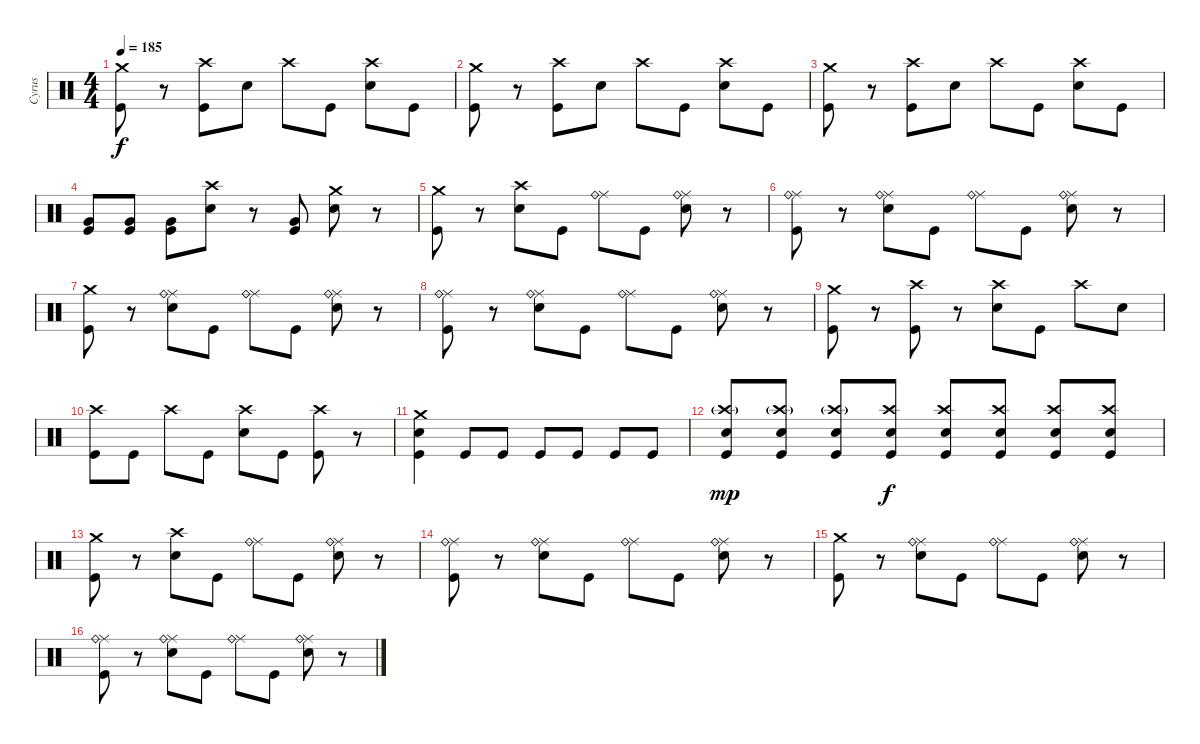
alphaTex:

\track ("Cyrus" "Cyrus") {instrument percussion}
\staff {score}
\articulation defaults
\ts (4 4)
\tempo 185
\clef neutral
\ks c
("Crash medium (hit)" "Kick (hit)").8{dy f} r.8 ("Crash high (hit)" "Kick (hit)").8 "Electric Snare (hit)".8 "Crash high (hit)".8 "Kick (hit)".8 ("Crash high (hit)" "Electric Snare (hit)").8 "Kick (hit)".8 |
("Crash medium (hit)" "Kick (hit)").8 r.8 ("Crash high (hit)" "Kick (hit)").8 "Electric Snare (hit)".8 "Crash high (hit)".8 "Kick (hit)".8 ("Crash high (hit)" "Electric Snare (hit)").8 "Kick (hit)".8 |
("Crash medium (hit)" "Kick (hit)").8 r.8 ("Crash high (hit)" "Kick (hit)").8 "Electric Snare (hit)".8 "Crash high (hit)".8 "Kick (hit)".8 ("Crash high (hit)" "Electric Snare (hit)").8 "Kick (hit)".8 |
("Very Low Tom (hit)" "Kick (hit)").8 ("Very Low Tom (hit)" "Kick (hit)").8 ("Very Low Tom (hit)" "Kick (hit)").8 ("Crash high (hit)" "Electric Snare (hit)").8 r.8 ("Very Low Tom (hit)" "Kick (hit)").8 ("Crash medium (hit)" "Electric Snare (hit)").8 r.8 |
("Crash medium (hit)" "Kick (hit)").8 r.8 ("Crash high (hit)" "Electric Snare (hit)").8 "Kick (hit)".8 ("Ride (middle)" "Ride (bell)").8 "Kick (hit)".8 ("Ride (middle)" "Ride (bell)" "Electric Snare (hit)").8 r.8 |
("Ride (middle)" "Ride (bell)" "Kick (hit)").8 r.8 ("Ride (middle)" "Ride (bell)" "Electric Snare (hit)").8 "Kick (hit)".8 ("Ride (middle)" "Ride (bell)").8 "Kick (hit)".8 ("Ride (middle)" "Ride (bell)" "Electric Snare (hit)").8 r.8 |
("Crash medium (hit)" "Kick (hit)").8 r.8 ("Ride (middle)" "Ride (bell)" "Electric Snare (hit)").8 "Kick (hit)".8 ("Ride (middle)" "Ride (bell)").8 "Kick (hit)".8 ("Ride (middle)" "Ride (bell)" "Electric Snare (hit)").8 r.8 |
("Ride (middle)" "Ride (bell)" "Kick (hit)").8 r.8 ("Ride (middle)" "Ride (bell)" "Electric Snare (hit)").8 "Kick (hit)".8 ("Ride (middle)" "Ride (bell)").8 "Kick (hit)".8 ("Ride (middle)" "Ride (bell)" "Electric Snare (hit)").8 r.8 |
("Crash medium (hit)" "Kick (hit)").8 r.8 ("Crash high (hit)" "Kick (hit)").8 r.8 ("Crash high (hit)" "Electric Snare (hit)").8 "Kick (hit)".8 "Crash high (hit)".8 "Electric Snare (hit)".8 |
("Crash high (hit)" "Kick (hit)").8 "Kick (hit)".8 "Crash high (hit)".8 "Kick (hit)".8 ("Crash high (hit)" "Electric Snare (hit)").8 "Kick (hit)".8 ("Crash high (hit)" "Kick (hit)").8 r.8 |
("Crash medium (hit)" "Electric Snare (hit)" "Kick (hit)").4 "Kick (hit)".8 "Kick (hit)".8 "Kick (hit)".8 "Kick (hit)".8 "Kick (hit)".8 "Kick (hit)".8 |
("Crash high (hit)"{g} "Electric Snare (hit)" "Kick (hit)").8{dy mp} ("Crash high (hit)"{g} "Electric Snare (hit)" "Kick (hit)").8 ("Crash high (hit)"{g} "Electric Snare (hit)" "Kick (hit)").8 ("Crash high (hit)" "Electric Snare (hit)" "Kick (hit)").8{dy f} ("Crash high (hit)" "Electric Snare (hit)" "Kick (hit)").8 ("Crash high (hit)" "Electric Snare (hit)" "Kick (hit)").8 ("Crash high (hit)" "Electric Snare (hit)" "Kick (hit)").8 ("Crash high (hit)" "Electric Snare (hit)" "Kick (hit)").8 |
("Crash medium (hit)" "Kick (hit)").8 r.8 ("Crash high (hit)" "Electric Snare (hit)").8 "Kick (hit)".8 ("Ride (middle)" "Ride (bell)").8 "Kick (hit)".8 ("Ride (middle)" "Ride (bell)" "Electric Snare (hit)").8 r.8 |
("Ride (middle)" "Ride (bell)" "Kick (hit)").8 r.8 ("Ride (middle)" "Ride (bell)" "Electric Snare (hit)").8 "Kick (hit)".8 ("Ride (middle)" "Ride (bell)").8 "Kick (hit)".8 ("Ride (middle)" "Ride (bell)" "Electric Snare (hit)").8 r.8 |
("Crash medium (hit)" "Kick (hit)").8 r.8 ("Ride (middle)" "Ride (bell)" "Electric Snare (hit)").8 "Kick (hit)".8 ("Ride (middle)" "Ride (bell)").8 "Kick (hit)".8 ("Ride (middle)" "Ride (bell)" "Electric Snare (hit)").8 r.8 |
("Ride (middle)" "Ride (bell)" "Kick (hit)").8 r.8 ("Ride (middle)" "Ride (bell)" "Electric Snare (hit)").8 "Kick (hit)".8 ("Ride (middle)" "Ride (bell)").8 "Kick (hit)".8 ("Ride (middle)" "Ride (bell)" "Electric Snare (hit)").8 r.8
